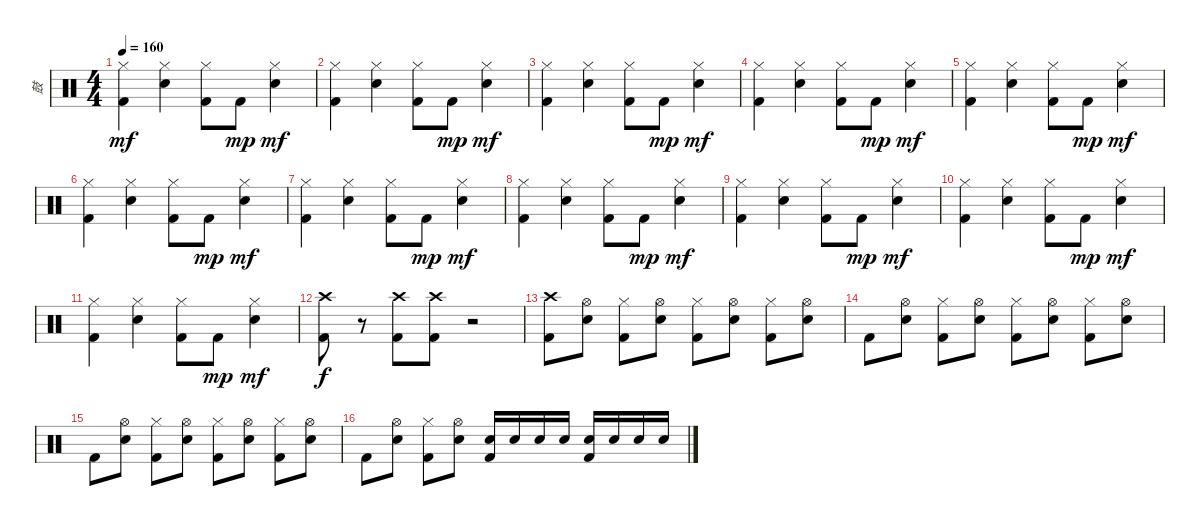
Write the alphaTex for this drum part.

\track ("鼓" "鼓") {instrument percussion}
\staff {score}
\articulation defaults
\ts (4 4)
\tempo 160
\clef neutral
\ks c
("Hi-Hat (closed)" "Kick (hit) 2").4{dy mf} ("Snare (hit) 2" "Hi-Hat (closed)").4 ("Hi-Hat (closed)" "Kick (hit) 2").8 "Kick (hit) 2".8{dy mp} ("Snare (hit) 2" "Hi-Hat (closed)").4{dy mf} |
("Hi-Hat (closed)" "Kick (hit) 2").4 ("Snare (hit) 2" "Hi-Hat (closed)").4 ("Hi-Hat (closed)" "Kick (hit) 2").8 "Kick (hit) 2".8{dy mp} ("Snare (hit) 2" "Hi-Hat (closed)").4{dy mf} |
("Hi-Hat (closed)" "Kick (hit) 2").4 ("Snare (hit) 2" "Hi-Hat (closed)").4 ("Hi-Hat (closed)" "Kick (hit) 2").8 "Kick (hit) 2".8{dy mp} ("Snare (hit) 2" "Hi-Hat (closed)").4{dy mf} |
("Hi-Hat (closed)" "Kick (hit) 2").4 ("Snare (hit) 2" "Hi-Hat (closed)").4 ("Hi-Hat (closed)" "Kick (hit) 2").8 "Kick (hit) 2".8{dy mp} ("Snare (hit) 2" "Hi-Hat (closed)").4{dy mf} |
("Hi-Hat (closed)" "Kick (hit) 2").4 ("Snare (hit) 2" "Hi-Hat (closed)").4 ("Hi-Hat (closed)" "Kick (hit) 2").8 "Kick (hit) 2".8{dy mp} ("Snare (hit) 2" "Hi-Hat (closed)").4{dy mf} |
("Hi-Hat (closed)" "Kick (hit) 2").4 ("Snare (hit) 2" "Hi-Hat (closed)").4 ("Hi-Hat (closed)" "Kick (hit) 2").8 "Kick (hit) 2".8{dy mp} ("Snare (hit) 2" "Hi-Hat (closed)").4{dy mf} |
("Hi-Hat (closed)" "Kick (hit) 2").4 ("Snare (hit) 2" "Hi-Hat (closed)").4 ("Hi-Hat (closed)" "Kick (hit) 2").8 "Kick (hit) 2".8{dy mp} ("Snare (hit) 2" "Hi-Hat (closed)").4{dy mf} |
("Hi-Hat (closed)" "Kick (hit) 2").4 ("Snare (hit) 2" "Hi-Hat (closed)").4 ("Hi-Hat (closed)" "Kick (hit) 2").8 "Kick (hit) 2".8{dy mp} ("Snare (hit) 2" "Hi-Hat (closed)").4{dy mf} |
("Hi-Hat (closed)" "Kick (hit) 2").4 ("Snare (hit) 2" "Hi-Hat (closed)").4 ("Hi-Hat (closed)" "Kick (hit) 2").8 "Kick (hit) 2".8{dy mp} ("Snare (hit) 2" "Hi-Hat (closed)").4{dy mf} |
("Hi-Hat (closed)" "Kick (hit) 2").4 ("Snare (hit) 2" "Hi-Hat (closed)").4 ("Hi-Hat (closed)" "Kick (hit) 2").8 "Kick (hit) 2".8{dy mp} ("Snare (hit) 2" "Hi-Hat (closed)").4{dy mf} |
("Hi-Hat (closed)" "Kick (hit) 2").4 ("Snare (hit) 2" "Hi-Hat (closed)").4 ("Hi-Hat (closed)" "Kick (hit) 2").8 "Kick (hit) 2".8{dy mp} ("Snare (hit) 2" "Hi-Hat (closed)").4{dy mf} |
("Crash high (hit)" "Kick (hit) 2").8{dy f} r.8 ("Crash high (hit)" "Kick (hit) 2").8 ("Crash high (hit)" "Kick (hit) 2").8 r.2 |
("Crash high (hit)" "Kick (hit) 2").8 ("Hi-Hat (open)" "Electric Snare (hit)").8 ("Hi-Hat (closed)" "Kick (hit) 2").8 ("Hi-Hat (open)" "Electric Snare (hit)").8 ("Hi-Hat (closed)" "Kick (hit) 2").8 ("Hi-Hat (open)" "Electric Snare (hit)").8 ("Hi-Hat (closed)" "Kick (hit) 2").8 ("Hi-Hat (open)" "Electric Snare (hit)").8 |
"Kick (hit) 2".8 ("Hi-Hat (open)" "Electric Snare (hit)").8 ("Hi-Hat (closed)" "Kick (hit) 2").8 ("Hi-Hat (open)" "Electric Snare (hit)").8 ("Hi-Hat (closed)" "Kick (hit) 2").8 ("Hi-Hat (open)" "Electric Snare (hit)").8 ("Hi-Hat (closed)" "Kick (hit) 2").8 ("Hi-Hat (open)" "Electric Snare (hit)").8 |
"Kick (hit) 2".8 ("Hi-Hat (open)" "Electric Snare (hit)").8 ("Hi-Hat (closed)" "Kick (hit) 2").8 ("Hi-Hat (open)" "Electric Snare (hit)").8 ("Hi-Hat (closed)" "Kick (hit) 2").8 ("Hi-Hat (open)" "Electric Snare (hit)").8 ("Hi-Hat (closed)" "Kick (hit) 2").8 ("Hi-Hat (open)" "Electric Snare (hit)").8 |
"Kick (hit) 2".8 ("Hi-Hat (open)" "Electric Snare (hit)").8 ("Hi-Hat (closed)" "Kick (hit) 2").8 ("Hi-Hat (open)" "Electric Snare (hit)").8 ("Electric Snare (hit)" "Kick (hit) 2").16 "Electric Snare (hit)".16 "Electric Snare (hit)".16 "Electric Snare (hit)".16 ("Electric Snare (hit)" "Kick (hit) 2").16 "Electric Snare (hit)".16 "Electric Snare (hit)".16 "Electric Snare (hit)".16
